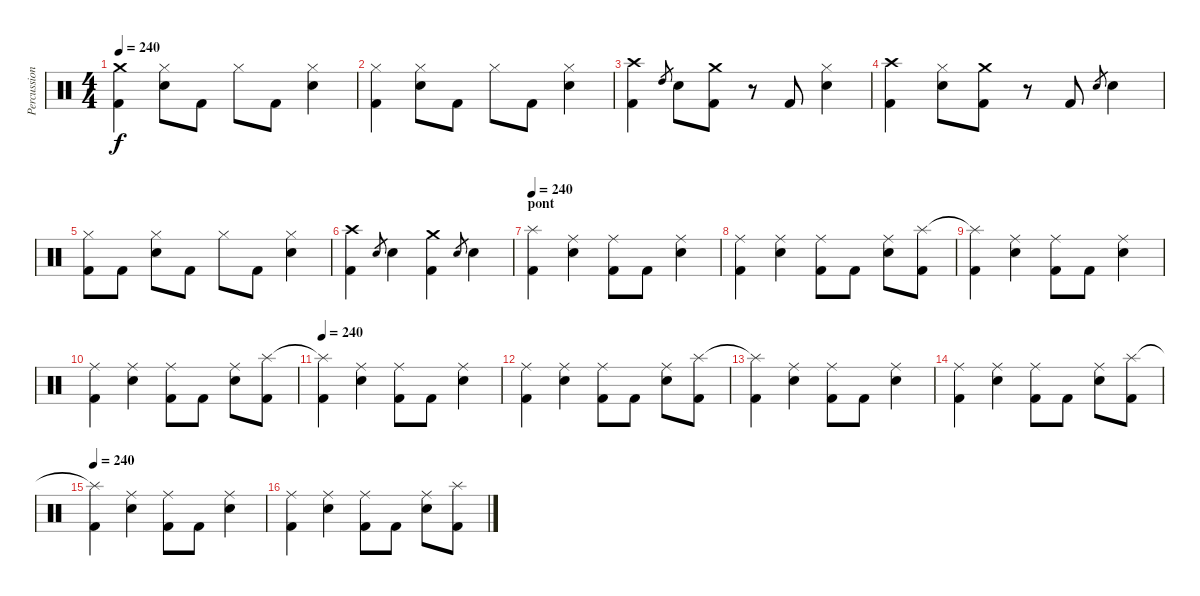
\track ("Percussions" "Percussion") {instrument percussion}
\staff {score}
\articulation defaults
\ts (4 4)
\tempo 240
\clef neutral
\ks c
("Crash medium (hit)" "Kick (hit) 2").4{dy f} ("Hi-Hat (closed)" "Electric Snare (hit)").8 "Kick (hit) 2".8 "Hi-Hat (closed)".8 "Kick (hit) 2".8 ("Hi-Hat (closed)" "Electric Snare (hit)").4 |
("Hi-Hat (closed)" "Kick (hit) 2").4 ("Hi-Hat (closed)" "Electric Snare (hit)").8 "Kick (hit) 2".8 "Hi-Hat (closed)".8 "Kick (hit) 2".8 ("Hi-Hat (closed)" "Electric Snare (hit)").4 |
("Crash high (hit)" "Kick (hit) 2").4 "High Tom (hit)".8{gr} "Electric Snare (hit)".8 ("Crash medium (hit)" "Kick (hit) 2").8 r.8 "Kick (hit) 2".8 ("Hi-Hat (closed)" "Electric Snare (hit)").4 |
("Crash high (hit)" "Kick (hit) 2").4 ("Hi-Hat (closed)" "Electric Snare (hit)").8 ("Crash medium (hit)" "Kick (hit) 2").8 r.8 "Kick (hit) 2".8 "Electric Snare (hit)".8{gr} "Electric Snare (hit)".4 |
("Hi-Hat (closed)" "Kick (hit) 2").8 "Kick (hit) 2".8 ("Hi-Hat (closed)" "Electric Snare (hit)").8 "Kick (hit) 2".8 "Hi-Hat (closed)".8 "Kick (hit) 2".8 ("Hi-Hat (closed)" "Electric Snare (hit)").4 |
("Crash high (hit)" "Kick (hit) 2").4 "Electric Snare (hit)".8{gr} "Electric Snare (hit)".4 ("Crash medium (hit)" "Kick (hit) 2").4 "Electric Snare (hit)".8{gr} "Electric Snare (hit)".4 |
\section ("" "pont")
\tempo 240
("Splash (hit)" "Kick (hit) 2").4 ("Ride (middle)" "Electric Snare (hit)").4 ("Ride (middle)" "Kick (hit) 2").8 "Kick (hit) 2".8 ("Ride (middle)" "Electric Snare (hit)").4 |
("Ride (middle)" "Kick (hit) 2").4 ("Ride (middle)" "Electric Snare (hit)").4 ("Ride (middle)" "Kick (hit) 2").8 "Kick (hit) 2".8 ("Ride (middle)" "Electric Snare (hit)").8 ("Splash (hit)" "Kick (hit) 2").8 |
("Splash (hit)"{t} "Kick (hit) 2").4 ("Ride (middle)" "Electric Snare (hit)").4 ("Ride (middle)" "Kick (hit) 2").8 "Kick (hit) 2".8 ("Ride (middle)" "Electric Snare (hit)").4 |
("Ride (middle)" "Kick (hit) 2").4 ("Ride (middle)" "Electric Snare (hit)").4 ("Ride (middle)" "Kick (hit) 2").8 "Kick (hit) 2".8 ("Ride (middle)" "Electric Snare (hit)").8 ("Splash (hit)" "Kick (hit) 2").8 |
\tempo 240
("Splash (hit)"{t} "Kick (hit) 2").4 ("Ride (middle)" "Electric Snare (hit)").4 ("Ride (middle)" "Kick (hit) 2").8 "Kick (hit) 2".8 ("Ride (middle)" "Electric Snare (hit)").4 |
("Ride (middle)" "Kick (hit) 2").4 ("Ride (middle)" "Electric Snare (hit)").4 ("Ride (middle)" "Kick (hit) 2").8 "Kick (hit) 2".8 ("Ride (middle)" "Electric Snare (hit)").8 ("Splash (hit)" "Kick (hit) 2").8 |
("Splash (hit)"{t} "Kick (hit) 2").4 ("Ride (middle)" "Electric Snare (hit)").4 ("Ride (middle)" "Kick (hit) 2").8 "Kick (hit) 2".8 ("Ride (middle)" "Electric Snare (hit)").4 |
("Ride (middle)" "Kick (hit) 2").4 ("Ride (middle)" "Electric Snare (hit)").4 ("Ride (middle)" "Kick (hit) 2").8 "Kick (hit) 2".8 ("Ride (middle)" "Electric Snare (hit)").8 ("Splash (hit)" "Kick (hit) 2").8 |
\tempo 240
("Splash (hit)"{t} "Kick (hit) 2").4 ("Ride (middle)" "Electric Snare (hit)").4 ("Ride (middle)" "Kick (hit) 2").8 "Kick (hit) 2".8 ("Ride (middle)" "Electric Snare (hit)").4 |
("Ride (middle)" "Kick (hit) 2").4 ("Ride (middle)" "Electric Snare (hit)").4 ("Ride (middle)" "Kick (hit) 2").8 "Kick (hit) 2".8 ("Ride (middle)" "Electric Snare (hit)").8 ("Splash (hit)" "Kick (hit) 2").8
